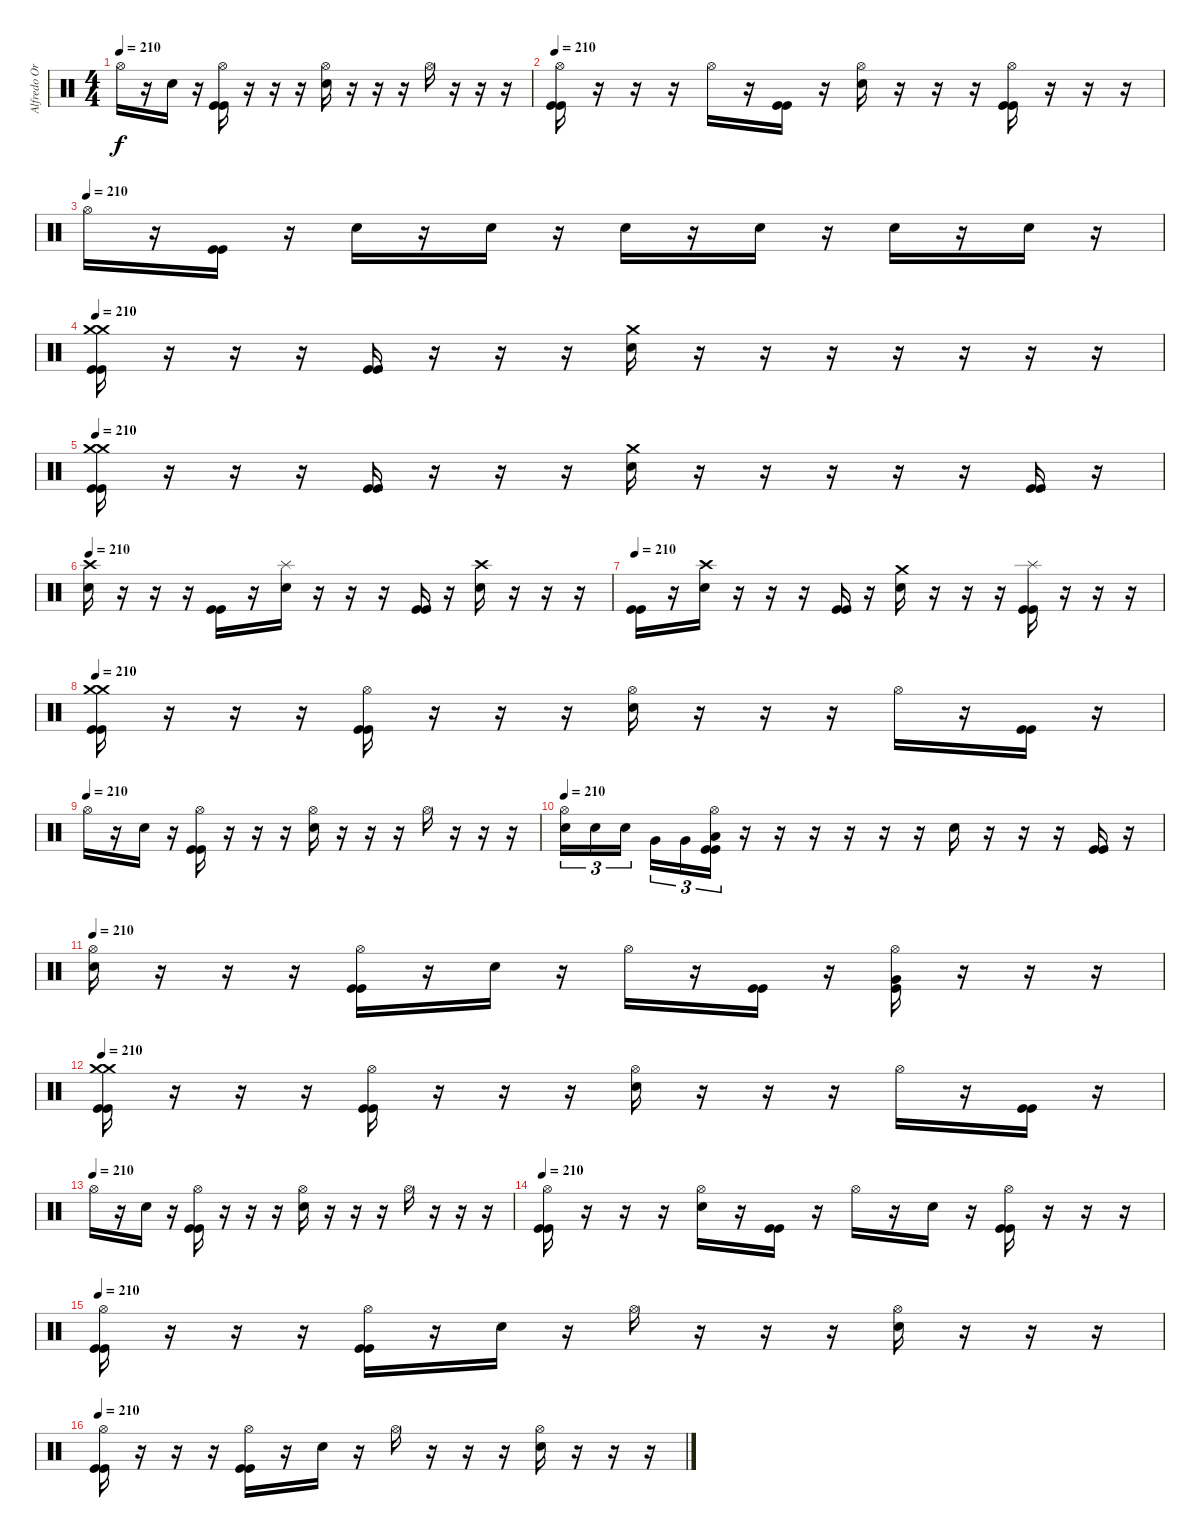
\track ("Alfredo Ortiz" "Alfredo Or") {instrument percussion}
\staff {score}
\articulation defaults
\ts (4 4)
\tempo 210
\clef neutral
\ks c "Hi-Hat (open)".16{dy f}
r.16 "Snare (hit) 2".16 r.16 ("Hi-Hat (open)" "Kick (hit)" "Kick (hit)").16 r.16 r.16 r.16 ("Hi-Hat (open)" "Snare (hit) 2").16 r.16 r.16 r.16 "Hi-Hat (open)".16 r.16 r.16 r.16 |
\tempo 210
("Hi-Hat (open)" "Kick (hit)" "Kick (hit)").16 r.16 r.16 r.16 "Hi-Hat (open)".16 r.16 ("Kick (hit)" "Kick (hit)").16 r.16 ("Hi-Hat (open)" "Snare (hit) 2").16 r.16 r.16 r.16 ("Hi-Hat (open)" "Kick (hit)" "Kick (hit)").16 r.16 r.16 r.16 |
\tempo (210)
"Hi-Hat (open)".16 r.16 ("Kick (hit)" "Kick (hit)").16 r.16 "Snare (hit) 2".16 r.16 "Snare (hit) 2".16 r.16 "Snare (hit) 2".16 r.16 "Snare (hit) 2".16 r.16 "Snare (hit) 2".16 r.16 "Snare (hit) 2".16 r.16 |
\tempo 210
("Crash medium (hit)" "Crash medium (hit)" "Kick (hit)" "Kick (hit)").16 r.16 r.16 r.16 ("Kick (hit)" "Kick (hit)").16 r.16 r.16 r.16 ("Crash medium (hit)" "Snare (hit) 2").16 r.16 r.16 r.16 r.16 r.16 r.16 r.16 |
\tempo 210
("Crash medium (hit)" "Crash medium (hit)" "Kick (hit)" "Kick (hit)").16 r.16 r.16 r.16 ("Kick (hit)" "Kick (hit)").16 r.16 r.16 r.16 ("Crash medium (hit)" "Snare (hit) 2").16 r.16 r.16 r.16 r.16 r.16 ("Kick (hit)" "Kick (hit)").16 r.16 |
\tempo 210
("Crash high (hit)" "Snare (hit) 2").16 r.16 r.16 r.16 ("Kick (hit)" "Kick (hit)").16 r.16 ("Splash (hit)" "Snare (hit) 2").16 r.16 r.16 r.16 ("Kick (hit)" "Kick (hit)").16 r.16 ("Crash high (hit)" "Snare (hit) 2").16 r.16 r.16 r.16 |
\tempo 210
("Kick (hit)" "Kick (hit)").16 r.16 ("Crash high (hit)" "Snare (hit) 2").16 r.16 r.16 r.16 ("Kick (hit)" "Kick (hit)").16 r.16 ("Crash medium (hit)" "Snare (hit) 2").16 r.16 r.16 r.16 ("Splash (hit)" "Kick (hit)" "Kick (hit)").16 r.16 r.16 r.16 |
\tempo 210
("Crash medium (hit)" "Crash medium (hit)" "Kick (hit)" "Kick (hit)").16 r.16 r.16 r.16 ("Hi-Hat (open)" "Kick (hit)" "Kick (hit)").16 r.16 r.16 r.16 ("Hi-Hat (open)" "Snare (hit) 2").16 r.16 r.16 r.16 "Hi-Hat (open)".16 r.16 ("Kick (hit)" "Kick (hit)").16 r.16 |
\tempo (210)
"Hi-Hat (open)".16 r.16 "Snare (hit) 2".16 r.16 ("Hi-Hat (open)" "Kick (hit)" "Kick (hit)").16 r.16 r.16 r.16 ("Hi-Hat (open)" "Snare (hit) 2").16 r.16 r.16 r.16 "Hi-Hat (open)".16 r.16 r.16 r.16 |
\tempo 210
("Hi-Hat (open)" "Snare (hit) 2").16{tu (3 2)} "Snare (hit) 2".16{tu (3 2)} "Snare (hit) 2".16{tu (3 2)} "Very Low Tom (hit)".16{tu (3 2)} "Very Low Tom (hit)".16{tu (3 2)} ("Hi-Hat (open)" "Low Floor Tom (hit)" "Kick (hit)" "Kick (hit)").16{tu (3 2)} r.16 r.16 r.16 r.16 r.16 r.16 "Snare (hit) 2".16 r.16 r.16 r.16 ("Kick (hit)" "Kick (hit)").16 r.16 |
\tempo 210
("Hi-Hat (open)" "Snare (hit) 2").16 r.16 r.16 r.16 ("Hi-Hat (open)" "Kick (hit)" "Kick (hit)").16 r.16 "Snare (hit) 2".16 r.16 "Hi-Hat (open)".16 r.16 ("Kick (hit)" "Kick (hit)").16 r.16 ("Hi-Hat (open)" "Very Low Tom (hit)" "Kick (hit)").16 r.16 r.16 r.16 |
\tempo 210
("Crash medium (hit)" "Crash medium (hit)" "Kick (hit)" "Kick (hit)").16 r.16 r.16 r.16 ("Hi-Hat (open)" "Kick (hit)" "Kick (hit)").16 r.16 r.16 r.16 ("Hi-Hat (open)" "Snare (hit) 2").16 r.16 r.16 r.16 "Hi-Hat (open)".16 r.16 ("Kick (hit)" "Kick (hit)").16 r.16 |
\tempo (210)
"Hi-Hat (open)".16 r.16 "Snare (hit) 2".16 r.16 ("Hi-Hat (open)" "Kick (hit)" "Kick (hit)").16 r.16 r.16 r.16 ("Hi-Hat (open)" "Snare (hit) 2").16 r.16 r.16 r.16 "Hi-Hat (open)".16 r.16 r.16 r.16 |
\tempo 210
("Hi-Hat (open)" "Kick (hit)" "Kick (hit)").16 r.16 r.16 r.16 ("Hi-Hat (open)" "Snare (hit) 2").16 r.16 ("Kick (hit)" "Kick (hit)").16 r.16 "Hi-Hat (open)".16 r.16 "Snare (hit) 2".16 r.16 ("Hi-Hat (open)" "Kick (hit)" "Kick (hit)").16 r.16 r.16 r.16 |
\tempo 210
("Hi-Hat (open)" "Kick (hit)" "Kick (hit)").16 r.16 r.16 r.16 ("Hi-Hat (open)" "Kick (hit)" "Kick (hit)").16 r.16 "Snare (hit) 2".16 r.16 "Hi-Hat (open)".16 r.16 r.16 r.16 ("Hi-Hat (open)" "Snare (hit) 2").16 r.16 r.16 r.16 |
\tempo 210
("Hi-Hat (open)" "Kick (hit)" "Kick (hit)").16 r.16 r.16 r.16 ("Hi-Hat (open)" "Kick (hit)" "Kick (hit)").16 r.16 "Snare (hit) 2".16 r.16 "Hi-Hat (open)".16 r.16 r.16 r.16 ("Hi-Hat (open)" "Snare (hit) 2").16 r.16 r.16 r.16
